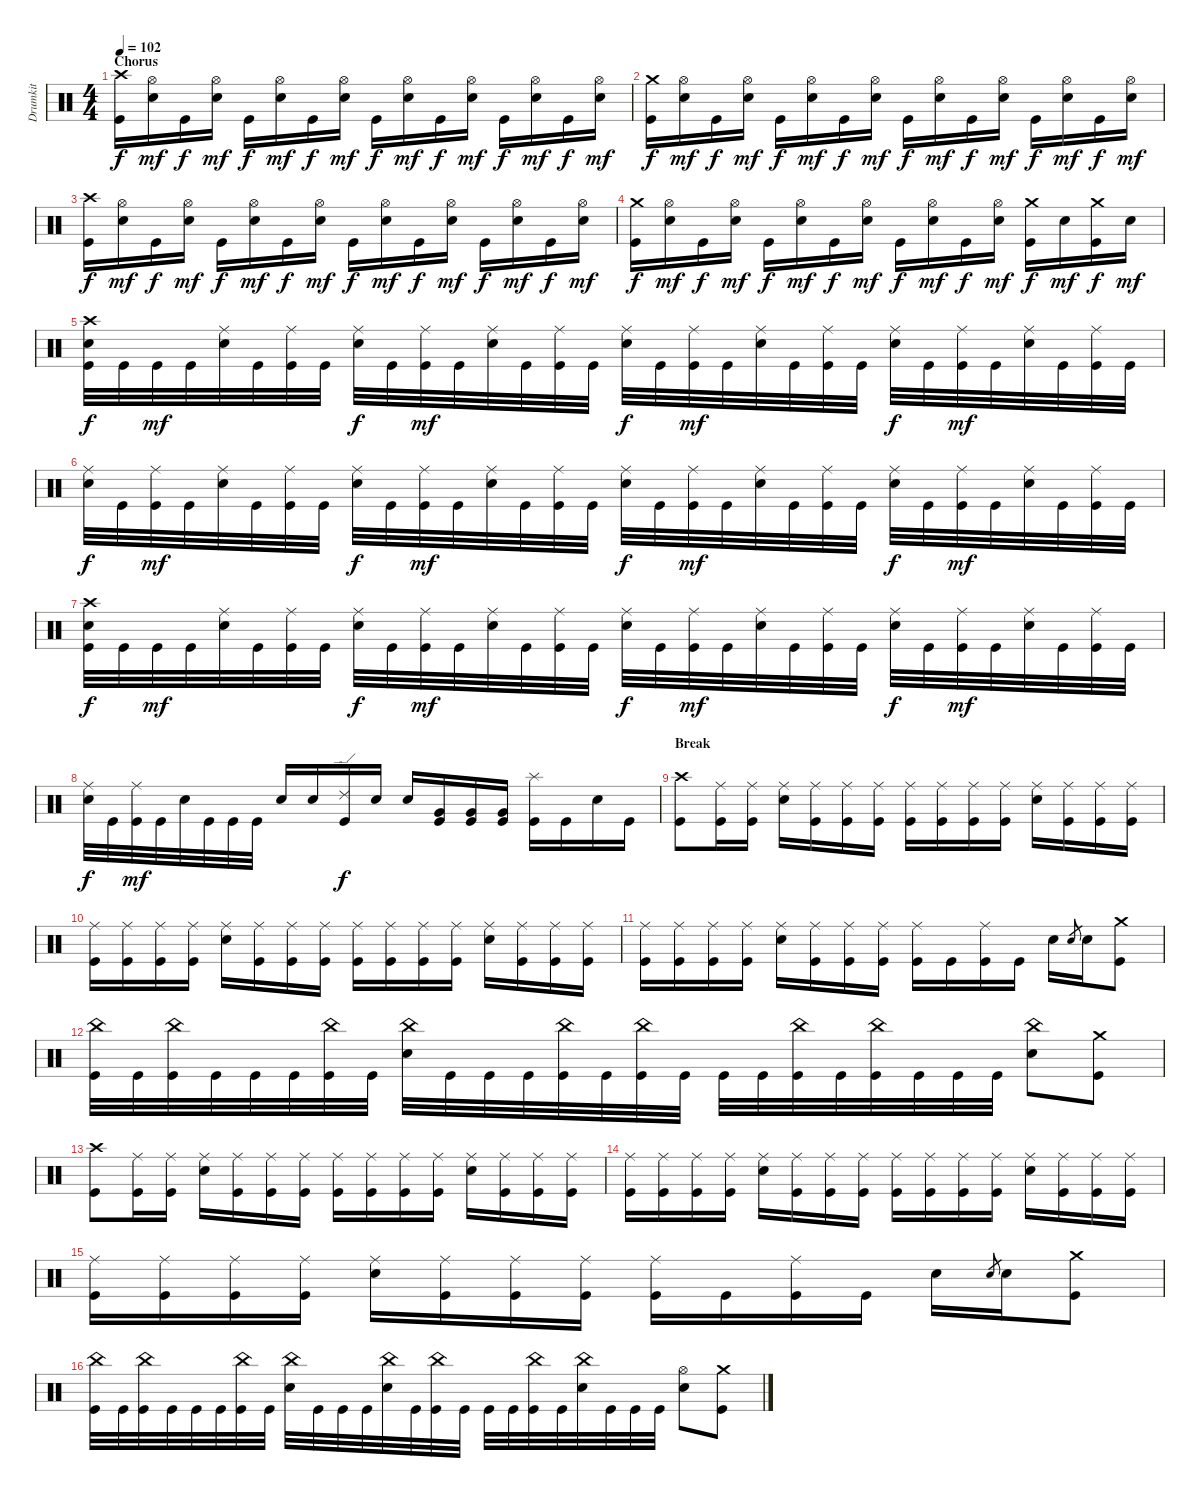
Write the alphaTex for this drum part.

\track ("Drumkit" "Drumkit") {instrument percussion}
\staff {score}
\articulation defaults
\ts (4 4)
\section ("" "Chorus")
\tempo 102
\clef neutral
\ks c
("Kick (hit)" "Crash high (hit)").16{dy f} ("Snare (hit) 2" "Hi-Hat (open)").16{dy mf} "Kick (hit)".16{dy f} ("Snare (hit) 2" "Hi-Hat (open)").16{dy mf} "Kick (hit)".16{dy f} ("Snare (hit) 2" "Hi-Hat (open)").16{dy mf} "Kick (hit)".16{dy f} ("Snare (hit) 2" "Hi-Hat (open)").16{dy mf} "Kick (hit)".16{dy f} ("Snare (hit) 2" "Hi-Hat (open)").16{dy mf} "Kick (hit)".16{dy f} ("Snare (hit) 2" "Hi-Hat (open)").16{dy mf} "Kick (hit)".16{dy f} ("Snare (hit) 2" "Hi-Hat (open)").16{dy mf} "Kick (hit)".16{dy f} ("Snare (hit) 2" "Hi-Hat (open)").16{dy mf} |
("Kick (hit)" "Crash medium (hit)").16{dy f} ("Snare (hit) 2" "Hi-Hat (open)").16{dy mf} "Kick (hit)".16{dy f} ("Snare (hit) 2" "Hi-Hat (open)").16{dy mf} "Kick (hit)".16{dy f} ("Snare (hit) 2" "Hi-Hat (open)").16{dy mf} "Kick (hit)".16{dy f} ("Snare (hit) 2" "Hi-Hat (open)").16{dy mf} "Kick (hit)".16{dy f} ("Snare (hit) 2" "Hi-Hat (open)").16{dy mf} "Kick (hit)".16{dy f} ("Snare (hit) 2" "Hi-Hat (open)").16{dy mf} "Kick (hit)".16{dy f} ("Snare (hit) 2" "Hi-Hat (open)").16{dy mf} "Kick (hit)".16{dy f} ("Snare (hit) 2" "Hi-Hat (open)").16{dy mf} |
("Kick (hit)" "Crash high (hit)").16{dy f} ("Snare (hit) 2" "Hi-Hat (open)").16{dy mf} "Kick (hit)".16{dy f} ("Snare (hit) 2" "Hi-Hat (open)").16{dy mf} "Kick (hit)".16{dy f} ("Snare (hit) 2" "Hi-Hat (open)").16{dy mf} "Kick (hit)".16{dy f} ("Snare (hit) 2" "Hi-Hat (open)").16{dy mf} "Kick (hit)".16{dy f} ("Snare (hit) 2" "Hi-Hat (open)").16{dy mf} "Kick (hit)".16{dy f} ("Snare (hit) 2" "Hi-Hat (open)").16{dy mf} "Kick (hit)".16{dy f} ("Snare (hit) 2" "Hi-Hat (open)").16{dy mf} "Kick (hit)".16{dy f} ("Snare (hit) 2" "Hi-Hat (open)").16{dy mf} |
("Kick (hit)" "Crash medium (hit)").16{dy f} ("Snare (hit) 2" "Hi-Hat (open)").16{dy mf} "Kick (hit)".16{dy f} ("Snare (hit) 2" "Hi-Hat (open)").16{dy mf} "Kick (hit)".16{dy f} ("Snare (hit) 2" "Hi-Hat (open)").16{dy mf} "Kick (hit)".16{dy f} ("Snare (hit) 2" "Hi-Hat (open)").16{dy mf} "Kick (hit)".16{dy f} ("Snare (hit) 2" "Hi-Hat (open)").16{dy mf} "Kick (hit)".16{dy f} ("Snare (hit) 2" "Hi-Hat (open)").16{dy mf} ("Kick (hit)" "Crash medium (hit)").16{dy f} "Snare (hit) 2".16{dy mf} ("Kick (hit)" "Crash medium (hit)").16{dy f} "Snare (hit) 2".16{dy mf} |
("Snare (hit) 2" "Kick (hit)" "Crash high (hit)").32{dy f} "Kick (hit)".32 "Kick (hit)".32{dy mf} "Kick (hit)".32 ("Snare (hit) 2" "Ride (middle)").32 "Kick (hit)".32 ("Kick (hit)" "Ride (middle)").32 "Kick (hit)".32 ("Snare (hit) 2" "Ride (middle)").32{dy f} "Kick (hit)".32 ("Kick (hit)" "Ride (middle)").32{dy mf} "Kick (hit)".32 ("Snare (hit) 2" "Ride (middle)").32 "Kick (hit)".32 ("Kick (hit)" "Ride (middle)").32 "Kick (hit)".32 ("Snare (hit) 2" "Ride (middle)").32{dy f} "Kick (hit)".32 ("Kick (hit)" "Ride (middle)").32{dy mf} "Kick (hit)".32 ("Snare (hit) 2" "Ride (middle)").32 "Kick (hit)".32 ("Kick (hit)" "Ride (middle)").32 "Kick (hit)".32 ("Snare (hit) 2" "Ride (middle)").32{dy f} "Kick (hit)".32 ("Kick (hit)" "Ride (middle)").32{dy mf} "Kick (hit)".32 ("Snare (hit) 2" "Ride (middle)").32 "Kick (hit)".32 ("Kick (hit)" "Ride (middle)").32 "Kick (hit)".32 |
("Snare (hit) 2" "Ride (middle)").32{dy f} "Kick (hit)".32 ("Kick (hit)" "Ride (middle)").32{dy mf} "Kick (hit)".32 ("Snare (hit) 2" "Ride (middle)").32 "Kick (hit)".32 ("Kick (hit)" "Ride (middle)").32 "Kick (hit)".32 ("Snare (hit) 2" "Ride (middle)").32{dy f} "Kick (hit)".32 ("Kick (hit)" "Ride (middle)").32{dy mf} "Kick (hit)".32 ("Snare (hit) 2" "Ride (middle)").32 "Kick (hit)".32 ("Kick (hit)" "Ride (middle)").32 "Kick (hit)".32 ("Snare (hit) 2" "Ride (middle)").32{dy f} "Kick (hit)".32 ("Kick (hit)" "Ride (middle)").32{dy mf} "Kick (hit)".32 ("Snare (hit) 2" "Ride (middle)").32 "Kick (hit)".32 ("Kick (hit)" "Ride (middle)").32 "Kick (hit)".32 ("Snare (hit) 2" "Ride (middle)").32{dy f} "Kick (hit)".32 ("Kick (hit)" "Ride (middle)").32{dy mf} "Kick (hit)".32 ("Snare (hit) 2" "Ride (middle)").32 "Kick (hit)".32 ("Kick (hit)" "Ride (middle)").32 "Kick (hit)".32 |
("Snare (hit) 2" "Kick (hit)" "Crash high (hit)").32{dy f} "Kick (hit)".32 "Kick (hit)".32{dy mf} "Kick (hit)".32 ("Snare (hit) 2" "Ride (middle)").32 "Kick (hit)".32 ("Kick (hit)" "Ride (middle)").32 "Kick (hit)".32 ("Snare (hit) 2" "Ride (middle)").32{dy f} "Kick (hit)".32 ("Kick (hit)" "Ride (middle)").32{dy mf} "Kick (hit)".32 ("Snare (hit) 2" "Ride (middle)").32 "Kick (hit)".32 ("Kick (hit)" "Ride (middle)").32 "Kick (hit)".32 ("Snare (hit) 2" "Ride (middle)").32{dy f} "Kick (hit)".32 ("Kick (hit)" "Ride (middle)").32{dy mf} "Kick (hit)".32 ("Snare (hit) 2" "Ride (middle)").32 "Kick (hit)".32 ("Kick (hit)" "Ride (middle)").32 "Kick (hit)".32 ("Snare (hit) 2" "Ride (middle)").32{dy f} "Kick (hit)".32 ("Kick (hit)" "Ride (middle)").32{dy mf} "Kick (hit)".32 ("Snare (hit) 2" "Ride (middle)").32 "Kick (hit)".32 ("Kick (hit)" "Ride (middle)").32 "Kick (hit)".32 |
("Snare (hit) 2" "Ride (middle)").32{dy f} "Kick (hit)".32 ("Kick (hit)" "Ride (middle)").32{dy mf} "Kick (hit)".32 "Snare (hit) 2".32 "Kick (hit)".32 "Kick (hit)".32 "Kick (hit)".32 "Snare (hit) 2".16 "Snare (hit) 2".16 ("Kick (hit)" "Ride (edge) 2").16{dy f} "Snare (hit) 2".16 "Snare (hit) 2".16 ("Kick (hit)" "Very Low Tom (hit)").16 ("Kick (hit)" "Very Low Tom (hit)").16 ("Kick (hit)" "Very Low Tom (hit)").16 ("Kick (hit)" "Splash (hit)").16 "Kick (hit)".16 "Snare (hit) 2".16 "Kick (hit)".16 |
\section ("" "Break")
("Kick (hit)" "Crash high (hit)").8 ("Kick (hit)" "Ride (middle)").16 ("Kick (hit)" "Ride (middle)").16 ("Snare (hit) 2" "Ride (middle)").16 ("Kick (hit)" "Ride (middle)").16 ("Kick (hit)" "Ride (middle)").16 ("Kick (hit)" "Ride (middle)").16 ("Kick (hit)" "Ride (middle)").16 ("Kick (hit)" "Ride (middle)").16 ("Kick (hit)" "Ride (middle)").16 ("Kick (hit)" "Ride (middle)").16 ("Snare (hit) 2" "Ride (middle)").16 ("Kick (hit)" "Ride (middle)").16 ("Kick (hit)" "Ride (middle)").16 ("Kick (hit)" "Ride (middle)").16 |
("Kick (hit)" "Ride (middle)").16 ("Kick (hit)" "Ride (middle)").16 ("Kick (hit)" "Ride (middle)").16 ("Kick (hit)" "Ride (middle)").16 ("Snare (hit) 2" "Ride (middle)").16 ("Kick (hit)" "Ride (middle)").16 ("Kick (hit)" "Ride (middle)").16 ("Kick (hit)" "Ride (middle)").16 ("Kick (hit)" "Ride (middle)").16 ("Kick (hit)" "Ride (middle)").16 ("Kick (hit)" "Ride (middle)").16 ("Kick (hit)" "Ride (middle)").16 ("Snare (hit) 2" "Ride (middle)").16 ("Kick (hit)" "Ride (middle)").16 ("Kick (hit)" "Ride (middle)").16 ("Kick (hit)" "Ride (middle)").16 |
("Kick (hit)" "Ride (middle)").16 ("Kick (hit)" "Ride (middle)").16 ("Kick (hit)" "Ride (middle)").16 ("Kick (hit)" "Ride (middle)").16 ("Snare (hit) 2" "Ride (middle)").16 ("Kick (hit)" "Ride (middle)").16 ("Kick (hit)" "Ride (middle)").16 ("Kick (hit)" "Ride (middle)").16 ("Kick (hit)" "Ride (middle)").16 "Kick (hit)".16 ("Kick (hit)" "Ride (middle)").16 "Kick (hit)".16 "Snare (hit) 2".16 "Snare (hit)".8{gr} "Snare (hit) 2".16 ("Kick (hit)" "Crash medium (hit)").8 |
("Kick (hit)" "China (hit)").32 "Kick (hit)".32 ("Kick (hit)" "China (hit)").32 "Kick (hit)".32 "Kick (hit)".32 "Kick (hit)".32 ("Kick (hit)" "China (hit)").32 "Kick (hit)".32 ("Snare (hit) 2" "China (hit)").32 "Kick (hit)".32 "Kick (hit)".32 "Kick (hit)".32 ("Kick (hit)" "China (hit)").32 "Kick (hit)".32 ("Kick (hit)" "China (hit)").32 "Kick (hit)".32 "Kick (hit)".32 "Kick (hit)".32 ("Kick (hit)" "China (hit)").32 "Kick (hit)".32 ("Kick (hit)" "China (hit)").32 "Kick (hit)".32 "Kick (hit)".32 "Kick (hit)".32 ("Snare (hit) 2" "China (hit)").8 ("Kick (hit)" "Crash medium (hit)").8 |
("Kick (hit)" "Crash high (hit)").8 ("Kick (hit)" "Ride (middle)").16 ("Kick (hit)" "Ride (middle)").16 ("Snare (hit) 2" "Ride (middle)").16 ("Kick (hit)" "Ride (middle)").16 ("Kick (hit)" "Ride (middle)").16 ("Kick (hit)" "Ride (middle)").16 ("Kick (hit)" "Ride (middle)").16 ("Kick (hit)" "Ride (middle)").16 ("Kick (hit)" "Ride (middle)").16 ("Kick (hit)" "Ride (middle)").16 ("Snare (hit) 2" "Ride (middle)").16 ("Kick (hit)" "Ride (middle)").16 ("Kick (hit)" "Ride (middle)").16 ("Kick (hit)" "Ride (middle)").16 |
("Kick (hit)" "Ride (middle)").16 ("Kick (hit)" "Ride (middle)").16 ("Kick (hit)" "Ride (middle)").16 ("Kick (hit)" "Ride (middle)").16 ("Snare (hit) 2" "Ride (middle)").16 ("Kick (hit)" "Ride (middle)").16 ("Kick (hit)" "Ride (middle)").16 ("Kick (hit)" "Ride (middle)").16 ("Kick (hit)" "Ride (middle)").16 ("Kick (hit)" "Ride (middle)").16 ("Kick (hit)" "Ride (middle)").16 ("Kick (hit)" "Ride (middle)").16 ("Snare (hit) 2" "Ride (middle)").16 ("Kick (hit)" "Ride (middle)").16 ("Kick (hit)" "Ride (middle)").16 ("Kick (hit)" "Ride (middle)").16 |
("Kick (hit)" "Ride (middle)").16 ("Kick (hit)" "Ride (middle)").16 ("Kick (hit)" "Ride (middle)").16 ("Kick (hit)" "Ride (middle)").16 ("Snare (hit) 2" "Ride (middle)").16 ("Kick (hit)" "Ride (middle)").16 ("Kick (hit)" "Ride (middle)").16 ("Kick (hit)" "Ride (middle)").16 ("Kick (hit)" "Ride (middle)").16 "Kick (hit)".16 ("Kick (hit)" "Ride (middle)").16 "Kick (hit)".16 "Snare (hit) 2".16 "Snare (hit)".8{gr} "Snare (hit) 2".16 ("Kick (hit)" "Crash medium (hit)").8 |
("Kick (hit)" "China (hit)").32 "Kick (hit)".32 ("Kick (hit)" "China (hit)").32 "Kick (hit)".32 "Kick (hit)".32 "Kick (hit)".32 ("Kick (hit)" "China (hit)").32 "Kick (hit)".32 ("Snare (hit) 2" "China (hit)").32 "Kick (hit)".32 "Kick (hit)".32 "Kick (hit)".32 ("China (hit)" "Snare (hit) 2").32 "Kick (hit)".32 ("Kick (hit)" "China (hit)").32 "Kick (hit)".32 "Kick (hit)".32 "Kick (hit)".32 ("Kick (hit)" "China (hit)").32 "Kick (hit)".32 ("China (hit)" "Snare (hit) 2").32 "Kick (hit)".32 "Kick (hit)".32 "Kick (hit)".32 ("Snare (hit) 2" "Hi-Hat (open)").8 ("Kick (hit)" "Crash medium (hit)").8
